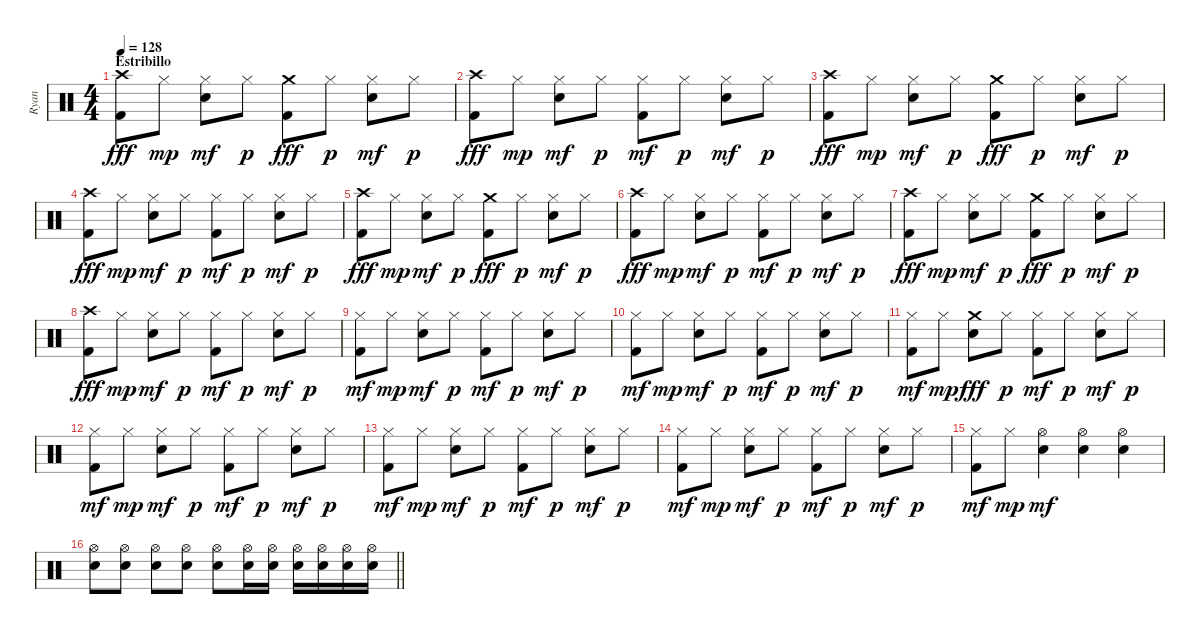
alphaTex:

\track ("Ryan" "Ryan") {instrument percussion}
\staff {score}
\articulation defaults
\ts (4 4)
\section ("" "Estribillo")
\tempo 128
\clef neutral
\ks c
("Kick (hit) 2" "Crash high (hit)").8{dy fff} "Hi-Hat (closed)".8{dy mp} ("Snare (hit) 2" "Hi-Hat (closed)").8{dy mf} "Hi-Hat (closed)".8{dy p} ("Kick (hit) 2" "Crash medium (hit)").8{dy fff} "Hi-Hat (closed)".8{dy p} ("Snare (hit) 2" "Hi-Hat (closed)").8{dy mf} "Hi-Hat (closed)".8{dy p} |
("Kick (hit) 2" "Crash high (hit)").8{dy fff} "Hi-Hat (closed)".8{dy mp} ("Snare (hit) 2" "Hi-Hat (closed)").8{dy mf} "Hi-Hat (closed)".8{dy p} ("Kick (hit) 2" "Hi-Hat (closed)").8{dy mf} "Hi-Hat (closed)".8{dy p} ("Snare (hit) 2" "Hi-Hat (closed)").8{dy mf} "Hi-Hat (closed)".8{dy p} |
("Kick (hit) 2" "Crash high (hit)").8{dy fff} "Hi-Hat (closed)".8{dy mp} ("Snare (hit) 2" "Hi-Hat (closed)").8{dy mf} "Hi-Hat (closed)".8{dy p} ("Kick (hit) 2" "Crash medium (hit)").8{dy fff} "Hi-Hat (closed)".8{dy p} ("Snare (hit) 2" "Hi-Hat (closed)").8{dy mf} "Hi-Hat (closed)".8{dy p} |
("Kick (hit) 2" "Crash high (hit)").8{dy fff} "Hi-Hat (closed)".8{dy mp} ("Snare (hit) 2" "Hi-Hat (closed)").8{dy mf} "Hi-Hat (closed)".8{dy p} ("Kick (hit) 2" "Hi-Hat (closed)").8{dy mf} "Hi-Hat (closed)".8{dy p} ("Snare (hit) 2" "Hi-Hat (closed)").8{dy mf} "Hi-Hat (closed)".8{dy p} |
("Kick (hit) 2" "Crash high (hit)").8{dy fff} "Hi-Hat (closed)".8{dy mp} ("Snare (hit) 2" "Hi-Hat (closed)").8{dy mf} "Hi-Hat (closed)".8{dy p} ("Kick (hit) 2" "Crash medium (hit)").8{dy fff} "Hi-Hat (closed)".8{dy p} ("Snare (hit) 2" "Hi-Hat (closed)").8{dy mf} "Hi-Hat (closed)".8{dy p} |
("Kick (hit) 2" "Crash high (hit)").8{dy fff} "Hi-Hat (closed)".8{dy mp} ("Snare (hit) 2" "Hi-Hat (closed)").8{dy mf} "Hi-Hat (closed)".8{dy p} ("Kick (hit) 2" "Hi-Hat (closed)").8{dy mf} "Hi-Hat (closed)".8{dy p} ("Snare (hit) 2" "Hi-Hat (closed)").8{dy mf} "Hi-Hat (closed)".8{dy p} |
("Kick (hit) 2" "Crash high (hit)").8{dy fff} "Hi-Hat (closed)".8{dy mp} ("Snare (hit) 2" "Hi-Hat (closed)").8{dy mf} "Hi-Hat (closed)".8{dy p} ("Kick (hit) 2" "Crash medium (hit)").8{dy fff} "Hi-Hat (closed)".8{dy p} ("Snare (hit) 2" "Hi-Hat (closed)").8{dy mf} "Hi-Hat (closed)".8{dy p} |
("Kick (hit) 2" "Crash high (hit)").8{dy fff} "Hi-Hat (closed)".8{dy mp} ("Snare (hit) 2" "Hi-Hat (closed)").8{dy mf} "Hi-Hat (closed)".8{dy p} ("Kick (hit) 2" "Hi-Hat (closed)").8{dy mf} "Hi-Hat (closed)".8{dy p} ("Snare (hit) 2" "Hi-Hat (closed)").8{dy mf} "Hi-Hat (closed)".8{dy p} |
("Kick (hit) 2" "Hi-Hat (closed)").8{dy mf} "Hi-Hat (closed)".8{dy mp} ("Snare (hit) 2" "Hi-Hat (closed)").8{dy mf} "Hi-Hat (closed)".8{dy p} ("Kick (hit) 2" "Hi-Hat (closed)").8{dy mf} "Hi-Hat (closed)".8{dy p} ("Snare (hit) 2" "Hi-Hat (closed)").8{dy mf} "Hi-Hat (closed)".8{dy p} |
("Kick (hit) 2" "Hi-Hat (closed)").8{dy mf} "Hi-Hat (closed)".8{dy mp} ("Snare (hit) 2" "Hi-Hat (closed)").8{dy mf} "Hi-Hat (closed)".8{dy p} ("Kick (hit) 2" "Hi-Hat (closed)").8{dy mf} "Hi-Hat (closed)".8{dy p} ("Snare (hit) 2" "Hi-Hat (closed)").8{dy mf} "Hi-Hat (closed)".8{dy p} |
("Kick (hit) 2" "Hi-Hat (closed)").8{dy mf} "Hi-Hat (closed)".8{dy mp} ("Snare (hit) 2" "Crash medium (hit)").8{dy fff} "Hi-Hat (closed)".8{dy p} ("Kick (hit) 2" "Hi-Hat (closed)").8{dy mf} "Hi-Hat (closed)".8{dy p} ("Snare (hit) 2" "Hi-Hat (closed)").8{dy mf} "Hi-Hat (closed)".8{dy p} |
("Kick (hit) 2" "Hi-Hat (closed)").8{dy mf} "Hi-Hat (closed)".8{dy mp} ("Snare (hit) 2" "Hi-Hat (closed)").8{dy mf} "Hi-Hat (closed)".8{dy p} ("Kick (hit) 2" "Hi-Hat (closed)").8{dy mf} "Hi-Hat (closed)".8{dy p} ("Snare (hit) 2" "Hi-Hat (closed)").8{dy mf} "Hi-Hat (closed)".8{dy p} |
("Kick (hit) 2" "Hi-Hat (closed)").8{dy mf} "Hi-Hat (closed)".8{dy mp} ("Snare (hit) 2" "Hi-Hat (closed)").8{dy mf} "Hi-Hat (closed)".8{dy p} ("Kick (hit) 2" "Hi-Hat (closed)").8{dy mf} "Hi-Hat (closed)".8{dy p} ("Snare (hit) 2" "Hi-Hat (closed)").8{dy mf} "Hi-Hat (closed)".8{dy p} |
("Kick (hit) 2" "Hi-Hat (closed)").8{dy mf} "Hi-Hat (closed)".8{dy mp} ("Snare (hit) 2" "Hi-Hat (closed)").8{dy mf} "Hi-Hat (closed)".8{dy p} ("Kick (hit) 2" "Hi-Hat (closed)").8{dy mf} "Hi-Hat (closed)".8{dy p} ("Snare (hit) 2" "Hi-Hat (closed)").8{dy mf} "Hi-Hat (closed)".8{dy p} |
("Kick (hit) 2" "Hi-Hat (closed)").8{dy mf} "Hi-Hat (closed)".8{dy mp} ("Snare (hit) 2" "Hi-Hat (open)").4{dy mf} ("Snare (hit) 2" "Hi-Hat (open)").4 ("Snare (hit) 2" "Hi-Hat (open)").4 |
\barLineRight lightlight
("Snare (hit) 2" "Hi-Hat (open)").8 ("Snare (hit) 2" "Hi-Hat (open)").8 ("Snare (hit) 2" "Hi-Hat (open)").8 ("Snare (hit) 2" "Hi-Hat (open)").8 ("Snare (hit) 2" "Hi-Hat (open)").8 ("Snare (hit) 2" "Hi-Hat (open)").16 ("Snare (hit) 2" "Hi-Hat (open)").16 ("Snare (hit) 2" "Hi-Hat (open)").16 ("Snare (hit) 2" "Hi-Hat (open)").16 ("Snare (hit) 2" "Hi-Hat (open)").16 ("Snare (hit) 2" "Hi-Hat (open)").16
